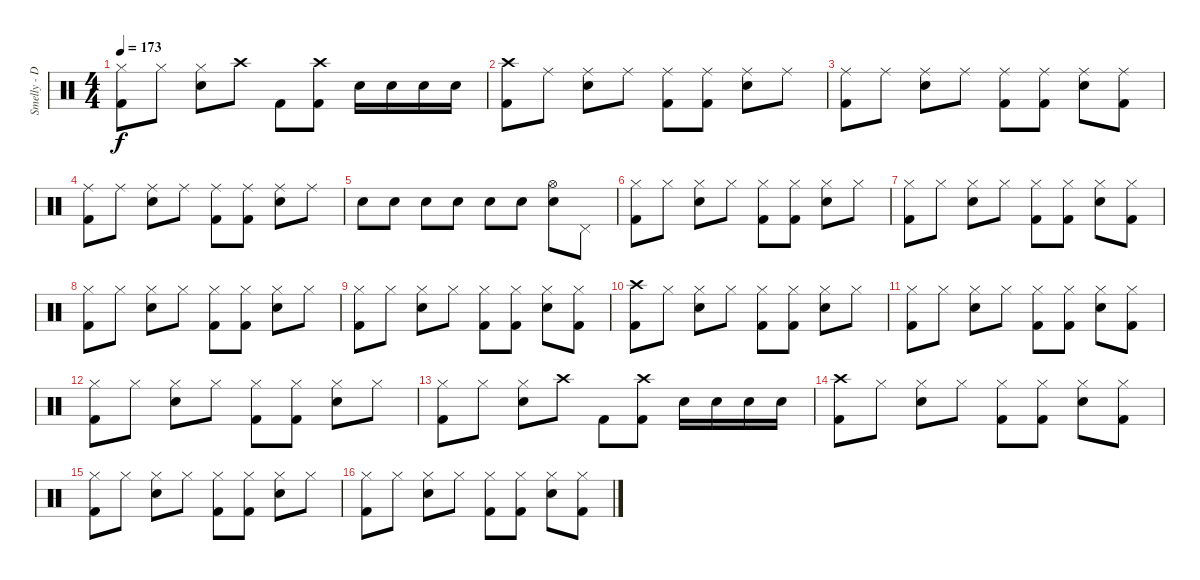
\track ("Smelly - Drums" "Smelly - D") {instrument percussion}
\staff {score}
\articulation defaults
\ts (4 4)
\tempo 173
\clef neutral
\ks c
("Hi-Hat (closed)" "Kick (hit) 2").8{dy f} "Hi-Hat (closed)".8 ("Hi-Hat (closed)" "Snare (hit) 2").8 "Crash high (hit)".8 "Kick (hit) 2".8 ("Crash high (hit)" "Kick (hit) 2").8 "Snare (hit) 2".16 "Snare (hit) 2".16 "Snare (hit) 2".16 "Snare (hit) 2".16 |
("Crash high (hit)" "Kick (hit) 2").8 "Ride (middle)".8 ("Ride (middle)" "Snare (hit) 2").8 "Ride (middle)".8 ("Ride (middle)" "Kick (hit) 2").8 ("Ride (middle)" "Kick (hit) 2").8 ("Ride (middle)" "Snare (hit) 2").8 "Ride (middle)".8 |
("Ride (middle)" "Kick (hit) 2").8 "Ride (middle)".8 ("Ride (middle)" "Snare (hit) 2").8 "Ride (middle)".8 ("Ride (middle)" "Kick (hit) 2").8 ("Ride (middle)" "Kick (hit) 2").8 ("Ride (middle)" "Snare (hit) 2").8 ("Ride (middle)" "Kick (hit) 2").8 |
("Ride (middle)" "Kick (hit) 2").8 "Ride (middle)".8 ("Ride (middle)" "Snare (hit) 2").8 "Ride (middle)".8 ("Ride (middle)" "Kick (hit) 2").8 ("Ride (middle)" "Kick (hit) 2").8 ("Ride (middle)" "Snare (hit) 2").8 "Ride (middle)".8 |
"Snare (hit) 2".8 "Snare (hit) 2".8 "Snare (hit) 2".8 "Snare (hit) 2".8 "Snare (hit) 2".8 "Snare (hit) 2".8 ("Hi-Hat (open)" "Snare (hit) 2").8 "Pedal Hi-Hat (hit)".8 |
("Hi-Hat (closed)" "Kick (hit) 2").8 "Hi-Hat (closed)".8 ("Hi-Hat (closed)" "Snare (hit) 2").8 "Hi-Hat (closed)".8 ("Hi-Hat (closed)" "Kick (hit) 2").8 ("Hi-Hat (closed)" "Kick (hit) 2").8 ("Hi-Hat (closed)" "Snare (hit) 2").8 "Hi-Hat (closed)".8 |
("Hi-Hat (closed)" "Kick (hit) 2").8 "Hi-Hat (closed)".8 ("Hi-Hat (closed)" "Snare (hit) 2").8 "Hi-Hat (closed)".8 ("Hi-Hat (closed)" "Kick (hit) 2").8 ("Hi-Hat (closed)" "Kick (hit) 2").8 ("Hi-Hat (closed)" "Snare (hit) 2").8 ("Hi-Hat (closed)" "Kick (hit) 2").8 |
("Hi-Hat (closed)" "Kick (hit) 2").8 "Hi-Hat (closed)".8 ("Hi-Hat (closed)" "Snare (hit) 2").8 "Hi-Hat (closed)".8 ("Hi-Hat (closed)" "Kick (hit) 2").8 ("Hi-Hat (closed)" "Kick (hit) 2").8 ("Hi-Hat (closed)" "Snare (hit) 2").8 "Hi-Hat (closed)".8 |
("Hi-Hat (closed)" "Kick (hit) 2").8 "Hi-Hat (closed)".8 ("Hi-Hat (closed)" "Snare (hit) 2").8 "Hi-Hat (closed)".8 ("Hi-Hat (closed)" "Kick (hit) 2").8 ("Hi-Hat (closed)" "Kick (hit) 2").8 ("Hi-Hat (closed)" "Snare (hit) 2").8 ("Hi-Hat (closed)" "Kick (hit) 2").8 |
("Crash high (hit)" "Kick (hit) 2").8 "Hi-Hat (closed)".8 ("Hi-Hat (closed)" "Snare (hit) 2").8 "Hi-Hat (closed)".8 ("Hi-Hat (closed)" "Kick (hit) 2").8 ("Hi-Hat (closed)" "Kick (hit) 2").8 ("Hi-Hat (closed)" "Snare (hit) 2").8 "Hi-Hat (closed)".8 |
("Hi-Hat (closed)" "Kick (hit) 2").8 "Hi-Hat (closed)".8 ("Hi-Hat (closed)" "Snare (hit) 2").8 "Hi-Hat (closed)".8 ("Hi-Hat (closed)" "Kick (hit) 2").8 ("Hi-Hat (closed)" "Kick (hit) 2").8 ("Hi-Hat (closed)" "Snare (hit) 2").8 ("Hi-Hat (closed)" "Kick (hit) 2").8 |
("Hi-Hat (closed)" "Kick (hit) 2").8 "Hi-Hat (closed)".8 ("Hi-Hat (closed)" "Snare (hit) 2").8 "Hi-Hat (closed)".8 ("Hi-Hat (closed)" "Kick (hit) 2").8 ("Hi-Hat (closed)" "Kick (hit) 2").8 ("Hi-Hat (closed)" "Snare (hit) 2").8 "Hi-Hat (closed)".8 |
("Hi-Hat (closed)" "Kick (hit) 2").8 "Hi-Hat (closed)".8 ("Hi-Hat (closed)" "Snare (hit) 2").8 "Crash high (hit)".8 "Kick (hit) 2".8 ("Crash high (hit)" "Kick (hit) 2").8 "Snare (hit) 2".16 "Snare (hit) 2".16 "Snare (hit) 2".16 "Snare (hit) 2".16 |
("Crash high (hit)" "Kick (hit) 2").8 "Hi-Hat (closed)".8 ("Hi-Hat (closed)" "Snare (hit) 2").8 "Hi-Hat (closed)".8 ("Hi-Hat (closed)" "Kick (hit) 2").8 ("Hi-Hat (closed)" "Kick (hit) 2").8 ("Hi-Hat (closed)" "Snare (hit) 2").8 ("Hi-Hat (closed)" "Kick (hit) 2").8 |
("Hi-Hat (closed)" "Kick (hit) 2").8 "Hi-Hat (closed)".8 ("Hi-Hat (closed)" "Snare (hit) 2").8 "Hi-Hat (closed)".8 ("Hi-Hat (closed)" "Kick (hit) 2").8 ("Hi-Hat (closed)" "Kick (hit) 2").8 ("Hi-Hat (closed)" "Snare (hit) 2").8 "Hi-Hat (closed)".8 |
("Hi-Hat (closed)" "Kick (hit) 2").8 "Hi-Hat (closed)".8 ("Hi-Hat (closed)" "Snare (hit) 2").8 "Hi-Hat (closed)".8 ("Hi-Hat (closed)" "Kick (hit) 2").8 ("Hi-Hat (closed)" "Kick (hit) 2").8 ("Hi-Hat (closed)" "Snare (hit) 2").8 ("Hi-Hat (closed)" "Kick (hit) 2").8
